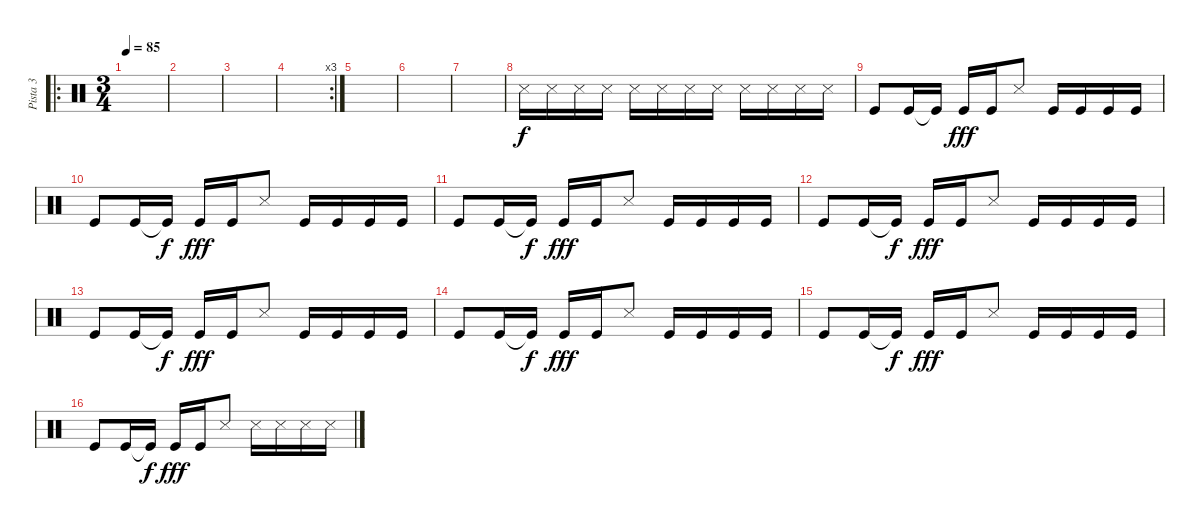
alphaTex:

\track ("Pista 3" "Pista 3") {instrument percussion}
\staff {score}
\articulation defaults
\ro
\ts (3 4)
\tempo 85
\clef neutral
\ks c
|
|
|
\rc 3
|
|
|
|
"Snare (side stick) 3".16{volume 16} "Snare (side stick) 3".16 "Snare (side stick) 3".16 "Snare (side stick) 3".16 "Snare (side stick) 3".16 "Snare (side stick) 3".16 "Snare (side stick) 3".16 "Snare (side stick) 3".16 "Snare (side stick) 3".16 "Snare (side stick) 3".16 "Snare (side stick) 3".16 "Snare (side stick) 3".16 |
"Kick (hit)".8 "Kick (hit)".16 "Kick (hit)"{t}.16{dy f} "Kick (hit)".16{dy fff} "Kick (hit)".16 "Snare (side stick) 3".8 "Kick (hit)".16 "Kick (hit)".16 "Kick (hit)".16 "Kick (hit)".16 |
"Kick (hit)".8 "Kick (hit)".16 "Kick (hit)"{t}.16{dy f} "Kick (hit)".16{dy fff} "Kick (hit)".16 "Snare (side stick) 3".8 "Kick (hit)".16 "Kick (hit)".16 "Kick (hit)".16 "Kick (hit)".16 |
"Kick (hit)".8 "Kick (hit)".16 "Kick (hit)"{t}.16{dy f} "Kick (hit)".16{dy fff} "Kick (hit)".16 "Snare (side stick) 3".8 "Kick (hit)".16 "Kick (hit)".16 "Kick (hit)".16 "Kick (hit)".16 |
"Kick (hit)".8 "Kick (hit)".16 "Kick (hit)"{t}.16{dy f} "Kick (hit)".16{dy fff} "Kick (hit)".16 "Snare (side stick) 3".8 "Kick (hit)".16 "Kick (hit)".16 "Kick (hit)".16 "Kick (hit)".16 |
"Kick (hit)".8 "Kick (hit)".16 "Kick (hit)"{t}.16{dy f} "Kick (hit)".16{dy fff} "Kick (hit)".16 "Snare (side stick) 3".8 "Kick (hit)".16 "Kick (hit)".16 "Kick (hit)".16 "Kick (hit)".16 |
"Kick (hit)".8 "Kick (hit)".16 "Kick (hit)"{t}.16{dy f} "Kick (hit)".16{dy fff} "Kick (hit)".16 "Snare (side stick) 3".8 "Kick (hit)".16 "Kick (hit)".16 "Kick (hit)".16 "Kick (hit)".16 |
"Kick (hit)".8 "Kick (hit)".16 "Kick (hit)"{t}.16{dy f} "Kick (hit)".16{dy fff} "Kick (hit)".16 "Snare (side stick) 3".8 "Kick (hit)".16 "Kick (hit)".16 "Kick (hit)".16 "Kick (hit)".16 |
"Kick (hit)".8 "Kick (hit)".16 "Kick (hit)"{t}.16{dy f} "Kick (hit)".16{dy fff} "Kick (hit)".16 "Snare (side stick) 3".8 "Snare (side stick) 3".16 "Snare (side stick) 3".16 "Snare (side stick) 3".16 "Snare (side stick) 3".16
